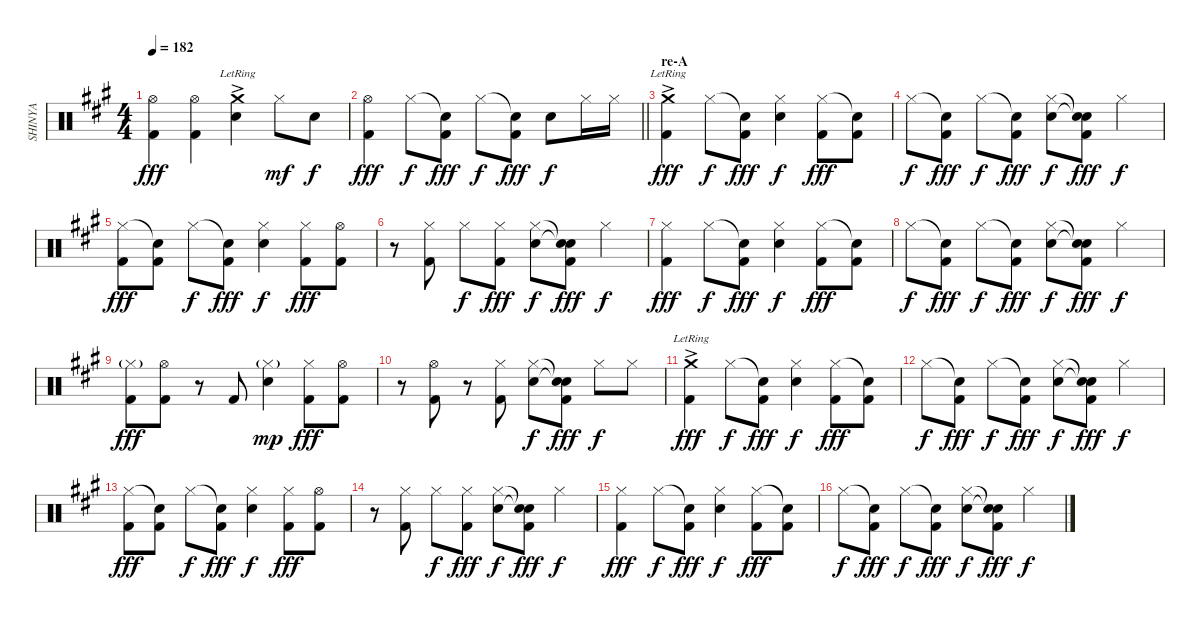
\track ("SHINYA" "SHINYA") {instrument percussion}
\staff {score}
\articulation defaults
\ts (4 4)
\tempo 182
\clef neutral
\ks a
("Hi-Hat (open)" "Kick (hit) 2").4{dy fff} ("Hi-Hat (open)" "Kick (hit) 2").4 ("Crash medium (hit)"{ac lr} "Electric Snare (hit)").4 "Hi-Hat (closed)".8{dy mf} "Electric Snare (hit)".8{dy f} |
\barLineRight lightlight
("Hi-Hat (open)" "Kick (hit) 2").4{dy fff} "Hi-Hat (closed)".8{dy f} ("Snare (hit)"{t} "Kick (hit) 2").8{dy fff} "Hi-Hat (closed)".8{dy f} ("Snare (hit)"{t} "Kick (hit) 2").8{dy fff} "Electric Snare (hit)".8{dy f} "Hi-Hat (closed)".16 "Hi-Hat (closed)".16 |
\section ("" "re-A")
("Crash medium (hit)"{ac lr} "Kick (hit) 2").4{dy fff} "Hi-Hat (closed)".8{dy f} ("Snare (hit)"{t} "Kick (hit) 2").8{dy fff} ("Hi-Hat (closed)" "Electric Snare (hit)").4{dy f} ("Hi-Hat (closed)" "Kick (hit) 2").8{dy fff} ("Snare (hit)"{t} "Kick (hit) 2").8 |
"Hi-Hat (closed)".8{dy f} ("Snare (hit)"{t} "Kick (hit) 2").8{dy fff} "Hi-Hat (closed)".8{dy f} ("Snare (hit)"{t} "Kick (hit) 2").8{dy fff} ("Hi-Hat (closed)" "Electric Snare (hit)").8{dy f} ("Snare (hit)"{t} "Snare (hit)"{t} "Kick (hit) 2").8{dy fff} "Hi-Hat (closed)".4{dy f} |
("Hi-Hat (closed)" "Kick (hit) 2").8{dy fff} ("Snare (hit)"{t} "Kick (hit) 2").8 "Hi-Hat (closed)".8{dy f} ("Snare (hit)"{t} "Kick (hit) 2").8{dy fff} ("Hi-Hat (closed)" "Electric Snare (hit)").4{dy f} ("Hi-Hat (closed)" "Kick (hit) 2").8{dy fff} ("Hi-Hat (open)" "Kick (hit) 2").8 |
r.8 ("Hi-Hat (closed)" "Kick (hit) 2").8 "Hi-Hat (closed)".8{dy f} ("Hi-Hat (closed)" "Kick (hit) 2").8{dy fff} ("Hi-Hat (closed)" "Electric Snare (hit)").8{dy f} ("Snare (hit)"{t} "Snare (hit)"{t} "Kick (hit) 2").8{dy fff} "Hi-Hat (closed)".4{dy f} |
("Hi-Hat (closed)" "Kick (hit) 2").4{dy fff} "Hi-Hat (closed)".8{dy f} ("Snare (hit)"{t} "Kick (hit) 2").8{dy fff} ("Hi-Hat (closed)" "Electric Snare (hit)").4{dy f} ("Hi-Hat (closed)" "Kick (hit) 2").8{dy fff} ("Snare (hit)"{t} "Kick (hit) 2").8 |
"Hi-Hat (closed)".8{dy f} ("Snare (hit)"{t} "Kick (hit) 2").8{dy fff} "Hi-Hat (closed)".8{dy f} ("Snare (hit)"{t} "Kick (hit) 2").8{dy fff} ("Hi-Hat (closed)" "Electric Snare (hit)").8{dy f} ("Snare (hit)"{t} "Snare (hit)"{t} "Kick (hit) 2").8{dy fff} "Hi-Hat (closed)".4{dy f} |
("Hi-Hat (closed)"{g} "Kick (hit) 2").8{dy fff} ("Hi-Hat (open)" "Kick (hit) 2").8 r.8 "Kick (hit) 2".8 ("Hi-Hat (closed)"{g} "Electric Snare (hit)").4{dy mp} ("Hi-Hat (closed)" "Kick (hit) 2").8{dy fff} ("Hi-Hat (open)" "Kick (hit) 2").8 |
r.8 ("Hi-Hat (open)" "Kick (hit) 2").8 r.8 ("Hi-Hat (closed)" "Kick (hit) 2").8 ("Hi-Hat (closed)" "Electric Snare (hit)").8{dy f} ("Snare (hit)"{t} "Snare (hit)"{t} "Kick (hit) 2").8{dy fff} "Hi-Hat (closed)".8{dy f} "Hi-Hat (closed)".8 |
("Crash medium (hit)"{ac lr} "Kick (hit) 2").4{dy fff} "Hi-Hat (closed)".8{dy f} ("Snare (hit)"{t} "Kick (hit) 2").8{dy fff} ("Hi-Hat (closed)" "Electric Snare (hit)").4{dy f} ("Hi-Hat (closed)" "Kick (hit) 2").8{dy fff} ("Snare (hit)"{t} "Kick (hit) 2").8 |
"Hi-Hat (closed)".8{dy f} ("Snare (hit)"{t} "Kick (hit) 2").8{dy fff} "Hi-Hat (closed)".8{dy f} ("Snare (hit)"{t} "Kick (hit) 2").8{dy fff} ("Hi-Hat (closed)" "Electric Snare (hit)").8{dy f} ("Snare (hit)"{t} "Snare (hit)"{t} "Kick (hit) 2").8{dy fff} "Hi-Hat (closed)".4{dy f} |
("Hi-Hat (closed)" "Kick (hit) 2").8{dy fff} ("Snare (hit)"{t} "Kick (hit) 2").8 "Hi-Hat (closed)".8{dy f} ("Snare (hit)"{t} "Kick (hit) 2").8{dy fff} ("Hi-Hat (closed)" "Electric Snare (hit)").4{dy f} ("Hi-Hat (closed)" "Kick (hit) 2").8{dy fff} ("Hi-Hat (open)" "Kick (hit) 2").8 |
r.8 ("Hi-Hat (closed)" "Kick (hit) 2").8 "Hi-Hat (closed)".8{dy f} ("Hi-Hat (closed)" "Kick (hit) 2").8{dy fff} ("Hi-Hat (closed)" "Electric Snare (hit)").8{dy f} ("Snare (hit)"{t} "Snare (hit)"{t} "Kick (hit) 2").8{dy fff} "Hi-Hat (closed)".4{dy f} |
("Hi-Hat (closed)" "Kick (hit) 2").4{dy fff} "Hi-Hat (closed)".8{dy f} ("Snare (hit)"{t} "Kick (hit) 2").8{dy fff} ("Hi-Hat (closed)" "Electric Snare (hit)").4{dy f} ("Hi-Hat (closed)" "Kick (hit) 2").8{dy fff} ("Snare (hit)"{t} "Kick (hit) 2").8 |
"Hi-Hat (closed)".8{dy f} ("Snare (hit)"{t} "Kick (hit) 2").8{dy fff} "Hi-Hat (closed)".8{dy f} ("Snare (hit)"{t} "Kick (hit) 2").8{dy fff} ("Hi-Hat (closed)" "Electric Snare (hit)").8{dy f} ("Snare (hit)"{t} "Snare (hit)"{t} "Kick (hit) 2").8{dy fff} "Hi-Hat (closed)".4{dy f}
